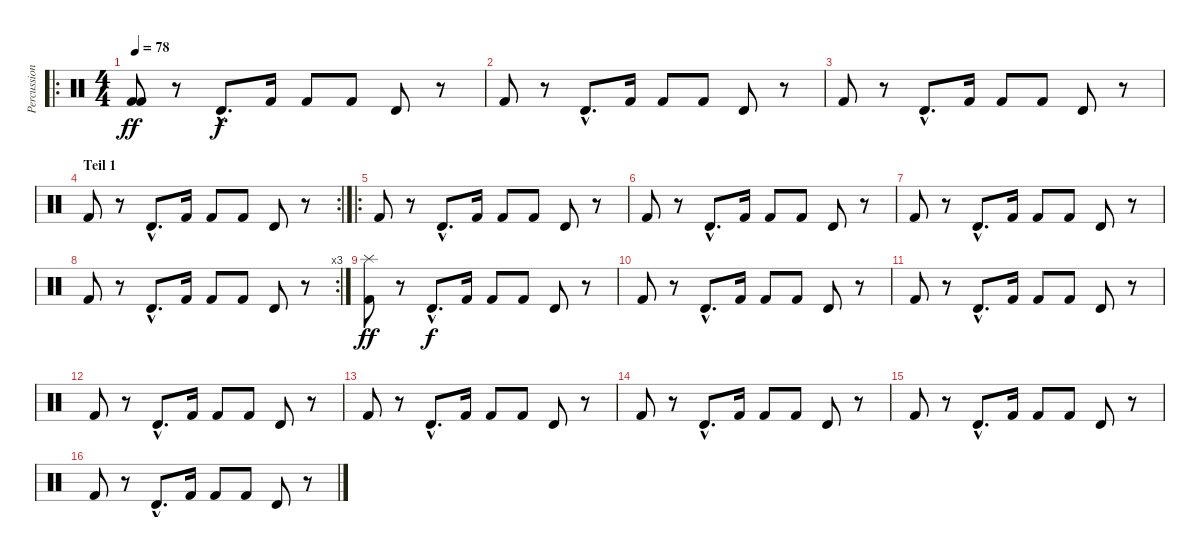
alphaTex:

\track ("Percussion" "Percussion") {instrument percussion}
\staff {score}
\articulation defaults
\ro
\ts (4 4)
\tempo 78
\clef neutral
\ks c
("Kick (hit) 2" "Kick (hit) 2").8{dy ff} r.8 "Timbale high (hit)"{hac}.8{d dy f} "Kick (hit) 2".16 "Kick (hit) 2".8 "Kick (hit) 2".8 "Timbale high (hit)".8 r.8 |
"Kick (hit) 2".8 r.8 "Timbale high (hit)"{hac}.8{d} "Kick (hit) 2".16 "Kick (hit) 2".8 "Kick (hit) 2".8 "Timbale high (hit)".8 r.8 |
"Kick (hit) 2".8 r.8 "Timbale high (hit)"{hac}.8{d} "Kick (hit) 2".16 "Kick (hit) 2".8 "Kick (hit) 2".8 "Timbale high (hit)".8 r.8 |
\rc 2
\section ("" "Teil 1")
"Kick (hit) 2".8 r.8 "Timbale high (hit)"{hac}.8{d} "Kick (hit) 2".16 "Kick (hit) 2".8 "Kick (hit) 2".8 "Timbale high (hit)".8 r.8 |
\ro "Kick (hit) 2".8
r.8 "Timbale high (hit)"{hac}.8{d} "Kick (hit) 2".16 "Kick (hit) 2".8 "Kick (hit) 2".8 "Timbale high (hit)".8 r.8 |
"Kick (hit) 2".8 r.8 "Timbale high (hit)"{hac}.8{d} "Kick (hit) 2".16 "Kick (hit) 2".8 "Kick (hit) 2".8 "Timbale high (hit)".8 r.8 |
"Kick (hit) 2".8 r.8 "Timbale high (hit)"{hac}.8{d} "Kick (hit) 2".16 "Kick (hit) 2".8 "Kick (hit) 2".8 "Timbale high (hit)".8 r.8 |
\rc 3 "Kick (hit) 2".8
r.8 "Timbale high (hit)"{hac}.8{d} "Kick (hit) 2".16 "Kick (hit) 2".8 "Kick (hit) 2".8 "Timbale high (hit)".8 r.8 |
("Splash (hit)" "Kick (hit) 2").8{dy ff} r.8 "Timbale high (hit)"{hac}.8{d dy f} "Kick (hit) 2".16 "Kick (hit) 2".8 "Kick (hit) 2".8 "Timbale high (hit)".8 r.8 |
"Kick (hit) 2".8 r.8 "Timbale high (hit)"{hac}.8{d} "Kick (hit) 2".16 "Kick (hit) 2".8 "Kick (hit) 2".8 "Timbale high (hit)".8 r.8 |
"Kick (hit) 2".8 r.8 "Timbale high (hit)"{hac}.8{d} "Kick (hit) 2".16 "Kick (hit) 2".8 "Kick (hit) 2".8 "Timbale high (hit)".8 r.8 |
"Kick (hit) 2".8 r.8 "Timbale high (hit)"{hac}.8{d} "Kick (hit) 2".16 "Kick (hit) 2".8 "Kick (hit) 2".8 "Timbale high (hit)".8 r.8 |
"Kick (hit) 2".8 r.8 "Timbale high (hit)"{hac}.8{d} "Kick (hit) 2".16 "Kick (hit) 2".8 "Kick (hit) 2".8 "Timbale high (hit)".8 r.8 |
"Kick (hit) 2".8 r.8 "Timbale high (hit)"{hac}.8{d} "Kick (hit) 2".16 "Kick (hit) 2".8 "Kick (hit) 2".8 "Timbale high (hit)".8 r.8 |
"Kick (hit) 2".8 r.8 "Timbale high (hit)"{hac}.8{d} "Kick (hit) 2".16 "Kick (hit) 2".8 "Kick (hit) 2".8 "Timbale high (hit)".8 r.8 |
"Kick (hit) 2".8 r.8 "Timbale high (hit)"{hac}.8{d} "Kick (hit) 2".16 "Kick (hit) 2".8 "Kick (hit) 2".8 "Timbale high (hit)".8 r.8
